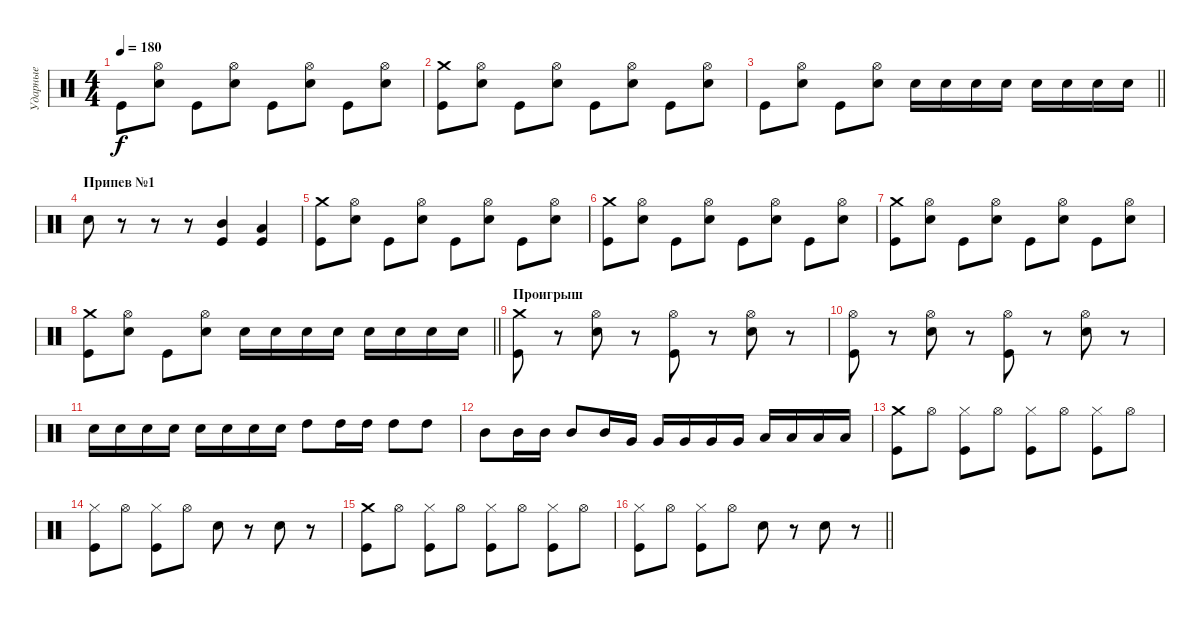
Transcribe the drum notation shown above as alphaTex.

\track ("Ударные" "Ударные") {instrument percussion}
\staff {score}
\articulation defaults
\ts (4 4)
\tempo 180
\clef neutral
\ks c "Kick (hit)".8{dy f}
("Hi-Hat (open)" "Electric Snare (hit)").8 "Kick (hit)".8 ("Hi-Hat (open)" "Electric Snare (hit)").8 "Kick (hit)".8 ("Hi-Hat (open)" "Electric Snare (hit)").8 "Kick (hit)".8 ("Hi-Hat (open)" "Electric Snare (hit)").8 |
("Crash medium (hit)" "Kick (hit)").8 ("Hi-Hat (open)" "Electric Snare (hit)").8 "Kick (hit)".8 ("Hi-Hat (open)" "Electric Snare (hit)").8 "Kick (hit)".8 ("Hi-Hat (open)" "Electric Snare (hit)").8 "Kick (hit)".8 ("Hi-Hat (open)" "Electric Snare (hit)").8 |
\barLineRight lightlight "Kick (hit)".8
("Hi-Hat (open)" "Electric Snare (hit)").8 "Kick (hit)".8 ("Hi-Hat (open)" "Electric Snare (hit)").8 "Electric Snare (hit)".16 "Electric Snare (hit)".16 "Electric Snare (hit)".16 "Electric Snare (hit)".16 "Electric Snare (hit)".16 "Electric Snare (hit)".16 "Electric Snare (hit)".16 "Electric Snare (hit)".16 |
\section ("" "Припев №1")
"Electric Snare (hit)".8 r.8 r.8 r.8 ("Mid Tom (hit)" "Kick (hit)").4 ("Low Tom (hit)" "Kick (hit)").4 |
("Crash medium (hit)" "Kick (hit)").8 ("Hi-Hat (open)" "Electric Snare (hit)").8 "Kick (hit)".8 ("Hi-Hat (open)" "Electric Snare (hit)").8 "Kick (hit)".8 ("Hi-Hat (open)" "Electric Snare (hit)").8 "Kick (hit)".8 ("Hi-Hat (open)" "Electric Snare (hit)").8 |
("Crash medium (hit)" "Kick (hit)").8 ("Hi-Hat (open)" "Electric Snare (hit)").8 "Kick (hit)".8 ("Hi-Hat (open)" "Electric Snare (hit)").8 "Kick (hit)".8 ("Hi-Hat (open)" "Electric Snare (hit)").8 "Kick (hit)".8 ("Hi-Hat (open)" "Electric Snare (hit)").8 |
("Crash medium (hit)" "Kick (hit)").8 ("Hi-Hat (open)" "Electric Snare (hit)").8 "Kick (hit)".8 ("Hi-Hat (open)" "Electric Snare (hit)").8 "Kick (hit)".8 ("Hi-Hat (open)" "Electric Snare (hit)").8 "Kick (hit)".8 ("Hi-Hat (open)" "Electric Snare (hit)").8 |
\barLineRight lightlight
("Crash medium (hit)" "Kick (hit)").8 ("Hi-Hat (open)" "Electric Snare (hit)").8 "Kick (hit)".8 ("Hi-Hat (open)" "Electric Snare (hit)").8 "Electric Snare (hit)".16 "Electric Snare (hit)".16 "Electric Snare (hit)".16 "Electric Snare (hit)".16 "Electric Snare (hit)".16 "Electric Snare (hit)".16 "Electric Snare (hit)".16 "Electric Snare (hit)".16 |
\section ("" "Проигрыш")
("Crash medium (hit)" "Kick (hit)").8 r.8 ("Hi-Hat (open)" "Electric Snare (hit)").8 r.8 ("Hi-Hat (open)" "Kick (hit)").8 r.8 ("Hi-Hat (open)" "Electric Snare (hit)").8 r.8 |
("Hi-Hat (open)" "Kick (hit)").8 r.8 ("Hi-Hat (open)" "Electric Snare (hit)").8 r.8 ("Hi-Hat (open)" "Kick (hit)").8 r.8 ("Hi-Hat (open)" "Electric Snare (hit)").8 r.8 |
"Electric Snare (hit)".16 "Electric Snare (hit)".16 "Electric Snare (hit)".16 "Electric Snare (hit)".16 "Electric Snare (hit)".16 "Electric Snare (hit)".16 "Electric Snare (hit)".16 "Electric Snare (hit)".16 "High Tom (hit)".8 "High Tom (hit)".16 "High Tom (hit)".16 "High Tom (hit)".8 "High Tom (hit)".8 |
"Mid Tom (hit)".8 "Mid Tom (hit)".16 "Mid Tom (hit)".16 "Mid Tom (hit)".8 "Mid Tom (hit)".16 "Very Low Tom (hit)".16 "Very Low Tom (hit)".16 "Very Low Tom (hit)".16 "Very Low Tom (hit)".16 "Very Low Tom (hit)".16 "Low Floor Tom (hit)".16 "Low Floor Tom (hit)".16 "Low Floor Tom (hit)".16 "Low Floor Tom (hit)".16 |
("Crash medium (hit)" "Kick (hit)").8 "Hi-Hat (open)".8 ("Kick (hit)" "Hi-Hat (closed)").8 "Hi-Hat (open)".8 ("Kick (hit)" "Hi-Hat (closed)").8 "Hi-Hat (open)".8 ("Kick (hit)" "Hi-Hat (closed)").8 "Hi-Hat (open)".8 |
("Kick (hit)" "Hi-Hat (closed)").8 "Hi-Hat (open)".8 ("Kick (hit)" "Hi-Hat (closed)").8 "Hi-Hat (open)".8 "Electric Snare (hit)".8 r.8 "Electric Snare (hit)".8 r.8 |
("Crash medium (hit)" "Kick (hit)").8 "Hi-Hat (open)".8 ("Kick (hit)" "Hi-Hat (closed)").8 "Hi-Hat (open)".8 ("Kick (hit)" "Hi-Hat (closed)").8 "Hi-Hat (open)".8 ("Kick (hit)" "Hi-Hat (closed)").8 "Hi-Hat (open)".8 |
\barLineRight lightlight
("Kick (hit)" "Hi-Hat (closed)").8 "Hi-Hat (open)".8 ("Kick (hit)" "Hi-Hat (closed)").8 "Hi-Hat (open)".8 "Electric Snare (hit)".8 r.8 "Electric Snare (hit)".8 r.8
